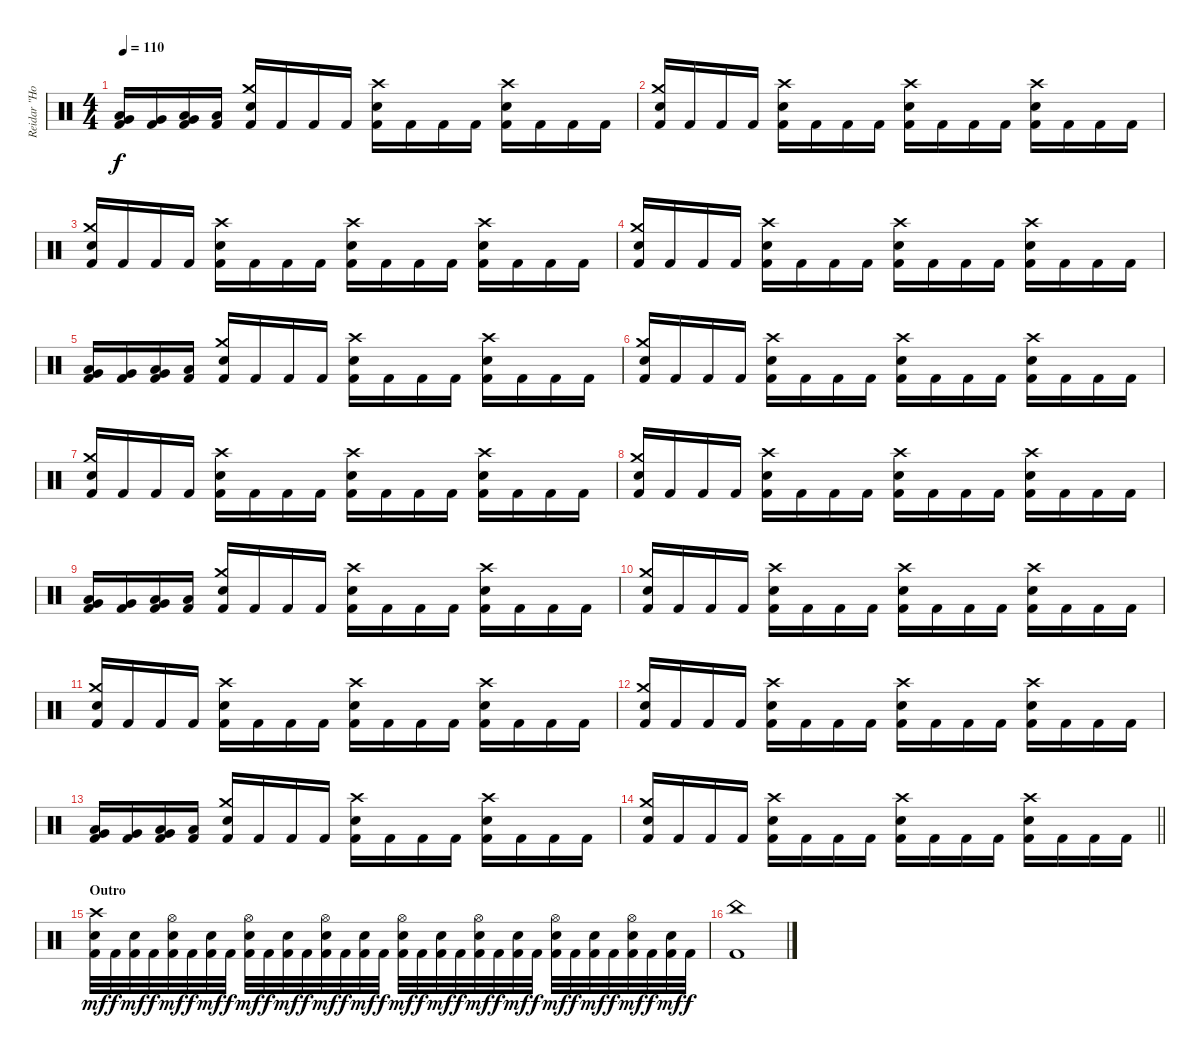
\track ("Reidar \"Horgh\" Horghagen " "Reidar \"Ho") {instrument percussion}
\staff {score}
\articulation defaults
\ts (4 4)
\tempo 110
\clef neutral
\ks c
("Low Tom (hit)" "Very Low Tom (hit)" "Kick (hit) 2").16{dy f} ("Very Low Tom (hit)" "Kick (hit) 2").16 ("Very Low Tom (hit)" "Low Floor Tom (hit)" "Kick (hit) 2").16 ("Low Floor Tom (hit)" "Kick (hit) 2").16 ("Crash medium (hit)" "Snare (hit) 2" "Kick (hit) 2").16 "Kick (hit) 2".16 "Kick (hit) 2".16 "Kick (hit) 2".16 ("Crash high (hit)" "Snare (hit) 2" "Kick (hit) 2").16 "Kick (hit) 2".16 "Kick (hit) 2".16 "Kick (hit) 2".16 ("Crash high (hit)" "Snare (hit) 2" "Kick (hit) 2").16 "Kick (hit) 2".16 "Kick (hit) 2".16 "Kick (hit) 2".16 |
("Crash medium (hit)" "Snare (hit) 2" "Kick (hit) 2").16 "Kick (hit) 2".16 "Kick (hit) 2".16 "Kick (hit) 2".16 ("Crash high (hit)" "Snare (hit) 2" "Kick (hit) 2").16 "Kick (hit) 2".16 "Kick (hit) 2".16 "Kick (hit) 2".16 ("Crash high (hit)" "Snare (hit) 2" "Kick (hit) 2").16 "Kick (hit) 2".16 "Kick (hit) 2".16 "Kick (hit) 2".16 ("Crash high (hit)" "Snare (hit) 2" "Kick (hit) 2").16 "Kick (hit) 2".16 "Kick (hit) 2".16 "Kick (hit) 2".16 |
("Crash medium (hit)" "Snare (hit) 2" "Kick (hit) 2").16 "Kick (hit) 2".16 "Kick (hit) 2".16 "Kick (hit) 2".16 ("Crash high (hit)" "Snare (hit) 2" "Kick (hit) 2").16 "Kick (hit) 2".16 "Kick (hit) 2".16 "Kick (hit) 2".16 ("Crash high (hit)" "Snare (hit) 2" "Kick (hit) 2").16 "Kick (hit) 2".16 "Kick (hit) 2".16 "Kick (hit) 2".16 ("Crash high (hit)" "Snare (hit) 2" "Kick (hit) 2").16 "Kick (hit) 2".16 "Kick (hit) 2".16 "Kick (hit) 2".16 |
("Crash medium (hit)" "Snare (hit) 2" "Kick (hit) 2").16 "Kick (hit) 2".16 "Kick (hit) 2".16 "Kick (hit) 2".16 ("Crash high (hit)" "Snare (hit) 2" "Kick (hit) 2").16 "Kick (hit) 2".16 "Kick (hit) 2".16 "Kick (hit) 2".16 ("Crash high (hit)" "Snare (hit) 2" "Kick (hit) 2").16 "Kick (hit) 2".16 "Kick (hit) 2".16 "Kick (hit) 2".16 ("Crash high (hit)" "Snare (hit) 2" "Kick (hit) 2").16 "Kick (hit) 2".16 "Kick (hit) 2".16 "Kick (hit) 2".16 |
("Low Tom (hit)" "Very Low Tom (hit)" "Kick (hit) 2").16 ("Very Low Tom (hit)" "Kick (hit) 2").16 ("Very Low Tom (hit)" "Low Floor Tom (hit)" "Kick (hit) 2").16 ("Low Floor Tom (hit)" "Kick (hit) 2").16 ("Crash medium (hit)" "Snare (hit) 2" "Kick (hit) 2").16 "Kick (hit) 2".16 "Kick (hit) 2".16 "Kick (hit) 2".16 ("Crash high (hit)" "Snare (hit) 2" "Kick (hit) 2").16 "Kick (hit) 2".16 "Kick (hit) 2".16 "Kick (hit) 2".16 ("Crash high (hit)" "Snare (hit) 2" "Kick (hit) 2").16 "Kick (hit) 2".16 "Kick (hit) 2".16 "Kick (hit) 2".16 |
("Crash medium (hit)" "Snare (hit) 2" "Kick (hit) 2").16 "Kick (hit) 2".16 "Kick (hit) 2".16 "Kick (hit) 2".16 ("Crash high (hit)" "Snare (hit) 2" "Kick (hit) 2").16 "Kick (hit) 2".16 "Kick (hit) 2".16 "Kick (hit) 2".16 ("Crash high (hit)" "Snare (hit) 2" "Kick (hit) 2").16 "Kick (hit) 2".16 "Kick (hit) 2".16 "Kick (hit) 2".16 ("Crash high (hit)" "Snare (hit) 2" "Kick (hit) 2").16 "Kick (hit) 2".16 "Kick (hit) 2".16 "Kick (hit) 2".16 |
("Crash medium (hit)" "Snare (hit) 2" "Kick (hit) 2").16 "Kick (hit) 2".16 "Kick (hit) 2".16 "Kick (hit) 2".16 ("Crash high (hit)" "Snare (hit) 2" "Kick (hit) 2").16 "Kick (hit) 2".16 "Kick (hit) 2".16 "Kick (hit) 2".16 ("Crash high (hit)" "Snare (hit) 2" "Kick (hit) 2").16 "Kick (hit) 2".16 "Kick (hit) 2".16 "Kick (hit) 2".16 ("Crash high (hit)" "Snare (hit) 2" "Kick (hit) 2").16 "Kick (hit) 2".16 "Kick (hit) 2".16 "Kick (hit) 2".16 |
("Crash medium (hit)" "Snare (hit) 2" "Kick (hit) 2").16 "Kick (hit) 2".16 "Kick (hit) 2".16 "Kick (hit) 2".16 ("Crash high (hit)" "Snare (hit) 2" "Kick (hit) 2").16 "Kick (hit) 2".16 "Kick (hit) 2".16 "Kick (hit) 2".16 ("Crash high (hit)" "Snare (hit) 2" "Kick (hit) 2").16 "Kick (hit) 2".16 "Kick (hit) 2".16 "Kick (hit) 2".16 ("Crash high (hit)" "Snare (hit) 2" "Kick (hit) 2").16 "Kick (hit) 2".16 "Kick (hit) 2".16 "Kick (hit) 2".16 |
("Low Tom (hit)" "Very Low Tom (hit)" "Kick (hit) 2").16 ("Very Low Tom (hit)" "Kick (hit) 2").16 ("Very Low Tom (hit)" "Low Floor Tom (hit)" "Kick (hit) 2").16 ("Low Floor Tom (hit)" "Kick (hit) 2").16 ("Crash medium (hit)" "Snare (hit) 2" "Kick (hit) 2").16 "Kick (hit) 2".16 "Kick (hit) 2".16 "Kick (hit) 2".16 ("Crash high (hit)" "Snare (hit) 2" "Kick (hit) 2").16 "Kick (hit) 2".16 "Kick (hit) 2".16 "Kick (hit) 2".16 ("Crash high (hit)" "Snare (hit) 2" "Kick (hit) 2").16 "Kick (hit) 2".16 "Kick (hit) 2".16 "Kick (hit) 2".16 |
("Crash medium (hit)" "Snare (hit) 2" "Kick (hit) 2").16 "Kick (hit) 2".16 "Kick (hit) 2".16 "Kick (hit) 2".16 ("Crash high (hit)" "Snare (hit) 2" "Kick (hit) 2").16 "Kick (hit) 2".16 "Kick (hit) 2".16 "Kick (hit) 2".16 ("Crash high (hit)" "Snare (hit) 2" "Kick (hit) 2").16 "Kick (hit) 2".16 "Kick (hit) 2".16 "Kick (hit) 2".16 ("Crash high (hit)" "Snare (hit) 2" "Kick (hit) 2").16 "Kick (hit) 2".16 "Kick (hit) 2".16 "Kick (hit) 2".16 |
("Crash medium (hit)" "Snare (hit) 2" "Kick (hit) 2").16 "Kick (hit) 2".16 "Kick (hit) 2".16 "Kick (hit) 2".16 ("Crash high (hit)" "Snare (hit) 2" "Kick (hit) 2").16 "Kick (hit) 2".16 "Kick (hit) 2".16 "Kick (hit) 2".16 ("Crash high (hit)" "Snare (hit) 2" "Kick (hit) 2").16 "Kick (hit) 2".16 "Kick (hit) 2".16 "Kick (hit) 2".16 ("Crash high (hit)" "Snare (hit) 2" "Kick (hit) 2").16 "Kick (hit) 2".16 "Kick (hit) 2".16 "Kick (hit) 2".16 |
("Crash medium (hit)" "Snare (hit) 2" "Kick (hit) 2").16 "Kick (hit) 2".16 "Kick (hit) 2".16 "Kick (hit) 2".16 ("Crash high (hit)" "Snare (hit) 2" "Kick (hit) 2").16 "Kick (hit) 2".16 "Kick (hit) 2".16 "Kick (hit) 2".16 ("Crash high (hit)" "Snare (hit) 2" "Kick (hit) 2").16 "Kick (hit) 2".16 "Kick (hit) 2".16 "Kick (hit) 2".16 ("Crash high (hit)" "Snare (hit) 2" "Kick (hit) 2").16 "Kick (hit) 2".16 "Kick (hit) 2".16 "Kick (hit) 2".16 |
("Low Tom (hit)" "Very Low Tom (hit)" "Kick (hit) 2").16 ("Very Low Tom (hit)" "Kick (hit) 2").16 ("Very Low Tom (hit)" "Low Floor Tom (hit)" "Kick (hit) 2").16 ("Low Floor Tom (hit)" "Kick (hit) 2").16 ("Crash medium (hit)" "Snare (hit) 2" "Kick (hit) 2").16 "Kick (hit) 2".16 "Kick (hit) 2".16 "Kick (hit) 2".16 ("Crash high (hit)" "Snare (hit) 2" "Kick (hit) 2").16 "Kick (hit) 2".16 "Kick (hit) 2".16 "Kick (hit) 2".16 ("Crash high (hit)" "Snare (hit) 2" "Kick (hit) 2").16 "Kick (hit) 2".16 "Kick (hit) 2".16 "Kick (hit) 2".16 |
\barLineRight lightlight
("Crash medium (hit)" "Snare (hit) 2" "Kick (hit) 2").16 "Kick (hit) 2".16 "Kick (hit) 2".16 "Kick (hit) 2".16 ("Crash high (hit)" "Snare (hit) 2" "Kick (hit) 2").16 "Kick (hit) 2".16 "Kick (hit) 2".16 "Kick (hit) 2".16 ("Crash high (hit)" "Snare (hit) 2" "Kick (hit) 2").16 "Kick (hit) 2".16 "Kick (hit) 2".16 "Kick (hit) 2".16 ("Crash high (hit)" "Snare (hit) 2" "Kick (hit) 2").16 "Kick (hit) 2".16 "Kick (hit) 2".16 "Kick (hit) 2".16 |
\section ("" "Outro")
("Crash high (hit)" "Snare (hit) 2" "Kick (hit) 2").32{dy mf} "Kick (hit) 2".32{dy f} ("Snare (hit) 2" "Kick (hit) 2").32{dy mf} "Kick (hit) 2".32{dy f} ("Hi-Hat (open)" "Snare (hit) 2" "Kick (hit) 2").32{dy mf} "Kick (hit) 2".32{dy f} ("Snare (hit) 2" "Kick (hit) 2").32{dy mf} "Kick (hit) 2".32{dy f} ("Hi-Hat (open)" "Snare (hit) 2" "Kick (hit) 2").32{dy mf} "Kick (hit) 2".32{dy f} ("Snare (hit) 2" "Kick (hit) 2").32{dy mf} "Kick (hit) 2".32{dy f} ("Hi-Hat (open)" "Snare (hit) 2" "Kick (hit) 2").32{dy mf} "Kick (hit) 2".32{dy f} ("Snare (hit) 2" "Kick (hit) 2").32{dy mf} "Kick (hit) 2".32{dy f} ("Hi-Hat (open)" "Snare (hit) 2" "Kick (hit) 2").32{dy mf} "Kick (hit) 2".32{dy f} ("Snare (hit) 2" "Kick (hit) 2").32{dy mf} "Kick (hit) 2".32{dy f} ("Hi-Hat (open)" "Snare (hit) 2" "Kick (hit) 2").32{dy mf} "Kick (hit) 2".32{dy f} ("Snare (hit) 2" "Kick (hit) 2").32{dy mf} "Kick (hit) 2".32{dy f} ("Hi-Hat (open)" "Snare (hit) 2" "Kick (hit) 2").32{dy mf} "Kick (hit) 2".32{dy f} ("Snare (hit) 2" "Kick (hit) 2").32{dy mf} "Kick (hit) 2".32{dy f} ("Hi-Hat (open)" "Snare (hit) 2" "Kick (hit) 2").32{dy mf} "Kick (hit) 2".32{dy f} ("Snare (hit) 2" "Kick (hit) 2").32{dy mf} "Kick (hit) 2".32{dy f} |
("China (hit)" "Kick (hit) 2").1
